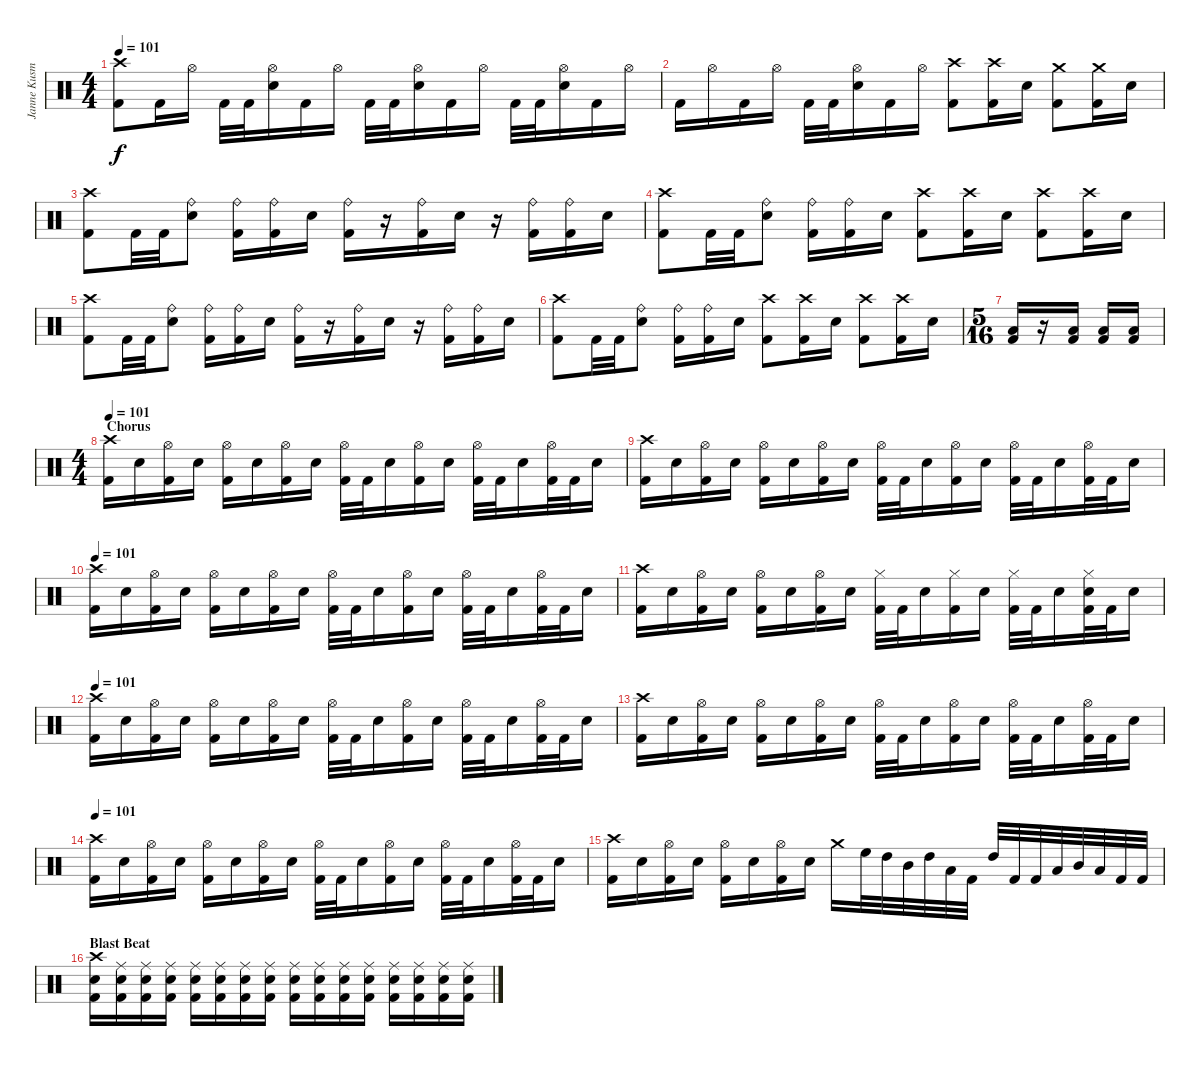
\track ("Janne Kusmin" "Janne Kusm") {instrument percussion}
\staff {score}
\articulation defaults
\ts (4 4)
\tempo 101
\clef neutral
\ks c
("Crash high (hit)" "Kick (hit) 2").8{dy f} "Kick (hit) 2".16 "Hi-Hat (open)".16 "Kick (hit) 2".32 "Kick (hit) 2".32 ("Hi-Hat (open)" "Snare (hit) 2").16 "Kick (hit) 2".16 "Hi-Hat (open)".16 "Kick (hit) 2".32 "Kick (hit) 2".32 ("Hi-Hat (open)" "Snare (hit) 2").16 "Kick (hit) 2".16 "Hi-Hat (open)".16 "Kick (hit) 2".32 "Kick (hit) 2".32 ("Hi-Hat (open)" "Snare (hit) 2").16 "Kick (hit) 2".16 "Hi-Hat (open)".16 |
"Kick (hit) 2".16 "Hi-Hat (open)".16 "Kick (hit) 2".16 "Hi-Hat (open)".16 "Kick (hit) 2".32 "Kick (hit) 2".32 ("Hi-Hat (open)" "Snare (hit) 2").16 "Kick (hit) 2".16 "Hi-Hat (open)".16 ("Crash high (hit)" "Kick (hit) 2").8 ("Crash high (hit)" "Kick (hit) 2").16 "Snare (hit) 2".16 ("Crash medium (hit)" "Kick (hit) 2").8 ("Crash medium (hit)" "Kick (hit) 2").16 "Snare (hit) 2".16 |
("Crash high (hit)" "Kick (hit) 2").8 "Kick (hit) 2".32 "Kick (hit) 2".32 ("Ride (bell)" "Snare (hit) 2").8 ("Ride (bell)" "Kick (hit) 2").16 ("Ride (bell)" "Kick (hit) 2").16 "Snare (hit) 2".16 ("Ride (bell)" "Kick (hit) 2").16 r.16 ("Ride (bell)" "Kick (hit) 2").16 "Snare (hit) 2".16 r.16 ("Ride (bell)" "Kick (hit) 2").16 ("Ride (bell)" "Kick (hit) 2").16 "Snare (hit) 2".16 |
("Crash high (hit)" "Kick (hit) 2").8 "Kick (hit) 2".32 "Kick (hit) 2".32 ("Ride (bell)" "Snare (hit) 2").8 ("Ride (bell)" "Kick (hit) 2").16 ("Ride (bell)" "Kick (hit) 2").16 "Snare (hit) 2".16 ("Crash high (hit)" "Kick (hit) 2").8 ("Crash high (hit)" "Kick (hit) 2").16 "Snare (hit) 2".16 ("Crash high (hit)" "Kick (hit) 2").8 ("Crash high (hit)" "Kick (hit) 2").16 "Snare (hit) 2".16 |
("Crash high (hit)" "Kick (hit) 2").8 "Kick (hit) 2".32 "Kick (hit) 2".32 ("Ride (bell)" "Snare (hit) 2").8 ("Ride (bell)" "Kick (hit) 2").16 ("Ride (bell)" "Kick (hit) 2").16 "Snare (hit) 2".16 ("Ride (bell)" "Kick (hit) 2").16 r.16 ("Ride (bell)" "Kick (hit) 2").16 "Snare (hit) 2".16 r.16 ("Ride (bell)" "Kick (hit) 2").16 ("Ride (bell)" "Kick (hit) 2").16 "Snare (hit) 2".16 |
("Crash high (hit)" "Kick (hit) 2").8 "Kick (hit) 2".32 "Kick (hit) 2".32 ("Ride (bell)" "Snare (hit) 2").8 ("Ride (bell)" "Kick (hit) 2").16 ("Ride (bell)" "Kick (hit) 2").16 "Snare (hit) 2".16 ("Crash high (hit)" "Kick (hit) 2").8 ("Crash high (hit)" "Kick (hit) 2").16 "Snare (hit) 2".16 ("Crash high (hit)" "Kick (hit) 2").8 ("Crash high (hit)" "Kick (hit) 2").16 "Snare (hit) 2".16 |
\ts (5 16)
("Low Tom (hit)" "Kick (hit) 2").16 r.16 ("Low Tom (hit)" "Kick (hit) 2").16 ("Low Tom (hit)" "Kick (hit) 2").16 ("Low Tom (hit)" "Kick (hit) 2").16 |
\ts (4 4)
\section ("" " Chorus")
\tempo 101
("Crash high (hit)" "Kick (hit) 2").16 "Snare (hit) 2".16 ("Hi-Hat (open)" "Kick (hit) 2").16 "Snare (hit) 2".16 ("Hi-Hat (open)" "Kick (hit) 2").16 "Snare (hit) 2".16 ("Hi-Hat (open)" "Kick (hit) 2").16 "Snare (hit) 2".16 ("Hi-Hat (open)" "Kick (hit) 2").32 "Kick (hit) 2".32 "Snare (hit) 2".16 ("Hi-Hat (open)" "Kick (hit) 2").16 "Snare (hit) 2".16 ("Hi-Hat (open)" "Kick (hit) 2").32 "Kick (hit) 2".32 "Snare (hit) 2".16 ("Hi-Hat (open)" "Kick (hit) 2").32 "Kick (hit) 2".32 "Snare (hit) 2".16 |
("Crash high (hit)" "Kick (hit) 2").16 "Snare (hit) 2".16 ("Hi-Hat (open)" "Kick (hit) 2").16 "Snare (hit) 2".16 ("Hi-Hat (open)" "Kick (hit) 2").16 "Snare (hit) 2".16 ("Hi-Hat (open)" "Kick (hit) 2").16 "Snare (hit) 2".16 ("Hi-Hat (open)" "Kick (hit) 2").32 "Kick (hit) 2".32 "Snare (hit) 2".16 ("Hi-Hat (open)" "Kick (hit) 2").16 "Snare (hit) 2".16 ("Hi-Hat (open)" "Kick (hit) 2").32 "Kick (hit) 2".32 "Snare (hit) 2".16 ("Hi-Hat (open)" "Kick (hit) 2").32 "Kick (hit) 2".32 "Snare (hit) 2".16 |
\tempo 101
("Crash high (hit)" "Kick (hit) 2").16 "Snare (hit) 2".16 ("Hi-Hat (open)" "Kick (hit) 2").16 "Snare (hit) 2".16 ("Hi-Hat (open)" "Kick (hit) 2").16 "Snare (hit) 2".16 ("Hi-Hat (open)" "Kick (hit) 2").16 "Snare (hit) 2".16 ("Hi-Hat (open)" "Kick (hit) 2").32 "Kick (hit) 2".32 "Snare (hit) 2".16 ("Hi-Hat (open)" "Kick (hit) 2").16 "Snare (hit) 2".16 ("Hi-Hat (open)" "Kick (hit) 2").32 "Kick (hit) 2".32 "Snare (hit) 2".16 ("Hi-Hat (open)" "Kick (hit) 2").32 "Kick (hit) 2".32 "Snare (hit) 2".16 |
("Crash high (hit)" "Kick (hit) 2").16 "Snare (hit) 2".16 ("Hi-Hat (open)" "Kick (hit) 2").16 "Snare (hit) 2".16 ("Hi-Hat (open)" "Kick (hit) 2").16 "Snare (hit) 2".16 ("Hi-Hat (open)" "Kick (hit) 2").16 "Snare (hit) 2".16 ("Hi-Hat (closed)" "Kick (hit) 2").32 "Kick (hit) 2".32 "Snare (hit) 2".16 ("Hi-Hat (closed)" "Kick (hit) 2").16 "Snare (hit) 2".16 ("Hi-Hat (closed)" "Kick (hit) 2").32 "Kick (hit) 2".32 "Snare (hit) 2".16 ("Hi-Hat (closed)" "Snare (hit) 2" "Kick (hit) 2").32 "Kick (hit) 2".32 "Snare (hit) 2".16 |
\tempo 101
("Crash high (hit)" "Kick (hit) 2").16 "Snare (hit) 2".16 ("Hi-Hat (open)" "Kick (hit) 2").16 "Snare (hit) 2".16 ("Hi-Hat (open)" "Kick (hit) 2").16 "Snare (hit) 2".16 ("Hi-Hat (open)" "Kick (hit) 2").16 "Snare (hit) 2".16 ("Hi-Hat (open)" "Kick (hit) 2").32 "Kick (hit) 2".32 "Snare (hit) 2".16 ("Hi-Hat (open)" "Kick (hit) 2").16 "Snare (hit) 2".16 ("Hi-Hat (open)" "Kick (hit) 2").32 "Kick (hit) 2".32 "Snare (hit) 2".16 ("Hi-Hat (open)" "Kick (hit) 2").32 "Kick (hit) 2".32 "Snare (hit) 2".16 |
("Crash high (hit)" "Kick (hit) 2").16 "Snare (hit) 2".16 ("Hi-Hat (open)" "Kick (hit) 2").16 "Snare (hit) 2".16 ("Hi-Hat (open)" "Kick (hit) 2").16 "Snare (hit) 2".16 ("Hi-Hat (open)" "Kick (hit) 2").16 "Snare (hit) 2".16 ("Hi-Hat (open)" "Kick (hit) 2").32 "Kick (hit) 2".32 "Snare (hit) 2".16 ("Hi-Hat (open)" "Kick (hit) 2").16 "Snare (hit) 2".16 ("Hi-Hat (open)" "Kick (hit) 2").32 "Kick (hit) 2".32 "Snare (hit) 2".16 ("Hi-Hat (open)" "Kick (hit) 2").32 "Kick (hit) 2".32 "Snare (hit) 2".16 |
\tempo 101
("Crash high (hit)" "Kick (hit) 2").16 "Snare (hit) 2".16 ("Hi-Hat (open)" "Kick (hit) 2").16 "Snare (hit) 2".16 ("Hi-Hat (open)" "Kick (hit) 2").16 "Snare (hit) 2".16 ("Hi-Hat (open)" "Kick (hit) 2").16 "Snare (hit) 2".16 ("Hi-Hat (open)" "Kick (hit) 2").32 "Kick (hit) 2".32 "Snare (hit) 2".16 ("Hi-Hat (open)" "Kick (hit) 2").16 "Snare (hit) 2".16 ("Hi-Hat (open)" "Kick (hit) 2").32 "Kick (hit) 2".32 "Snare (hit) 2".16 ("Hi-Hat (open)" "Kick (hit) 2").32 "Kick (hit) 2".32 "Snare (hit) 2".16 |
("Crash high (hit)" "Kick (hit) 2").16 "Snare (hit) 2".16 ("Hi-Hat (open)" "Kick (hit) 2").16 "Snare (hit) 2".16 ("Hi-Hat (open)" "Kick (hit) 2").16 "Snare (hit) 2".16 ("Hi-Hat (open)" "Kick (hit) 2").16 "Snare (hit) 2".16 "Crash medium (hit)".16 "High Floor Tom (hit)".32 "High Tom (hit)".32 "Mid Tom (hit)".32 "High Tom (hit)".32 "Low Tom (hit)".32 "Kick (hit) 2".32 "High Tom (hit)".32 "Kick (hit) 2".32 "Kick (hit) 2".32 "Low Tom (hit)".32 "Mid Tom (hit)".32 "Low Tom (hit)".32 "Kick (hit) 2".32 "Kick (hit) 2".32 |
\section ("" "Blast Beat")
("Crash high (hit)" "Snare (hit) 2" "Kick (hit) 2").16 ("Ride (middle)" "Snare (hit) 2" "Kick (hit) 2").16 ("Ride (middle)" "Snare (hit) 2" "Kick (hit) 2").16 ("Ride (middle)" "Snare (hit) 2" "Kick (hit) 2").16 ("Ride (middle)" "Snare (hit) 2" "Kick (hit) 2").16 ("Ride (middle)" "Snare (hit) 2" "Kick (hit) 2").16 ("Ride (middle)" "Snare (hit) 2" "Kick (hit) 2").16 ("Ride (middle)" "Snare (hit) 2" "Kick (hit) 2").16 ("Ride (middle)" "Snare (hit) 2" "Kick (hit) 2").16 ("Ride (middle)" "Snare (hit) 2" "Kick (hit) 2").16 ("Ride (middle)" "Snare (hit) 2" "Kick (hit) 2").16 ("Ride (middle)" "Snare (hit) 2" "Kick (hit) 2").16 ("Ride (middle)" "Snare (hit) 2" "Kick (hit) 2").16 ("Ride (middle)" "Snare (hit) 2" "Kick (hit) 2").16 ("Ride (middle)" "Snare (hit) 2" "Kick (hit) 2").16 ("Ride (middle)" "Snare (hit) 2" "Kick (hit) 2").16
